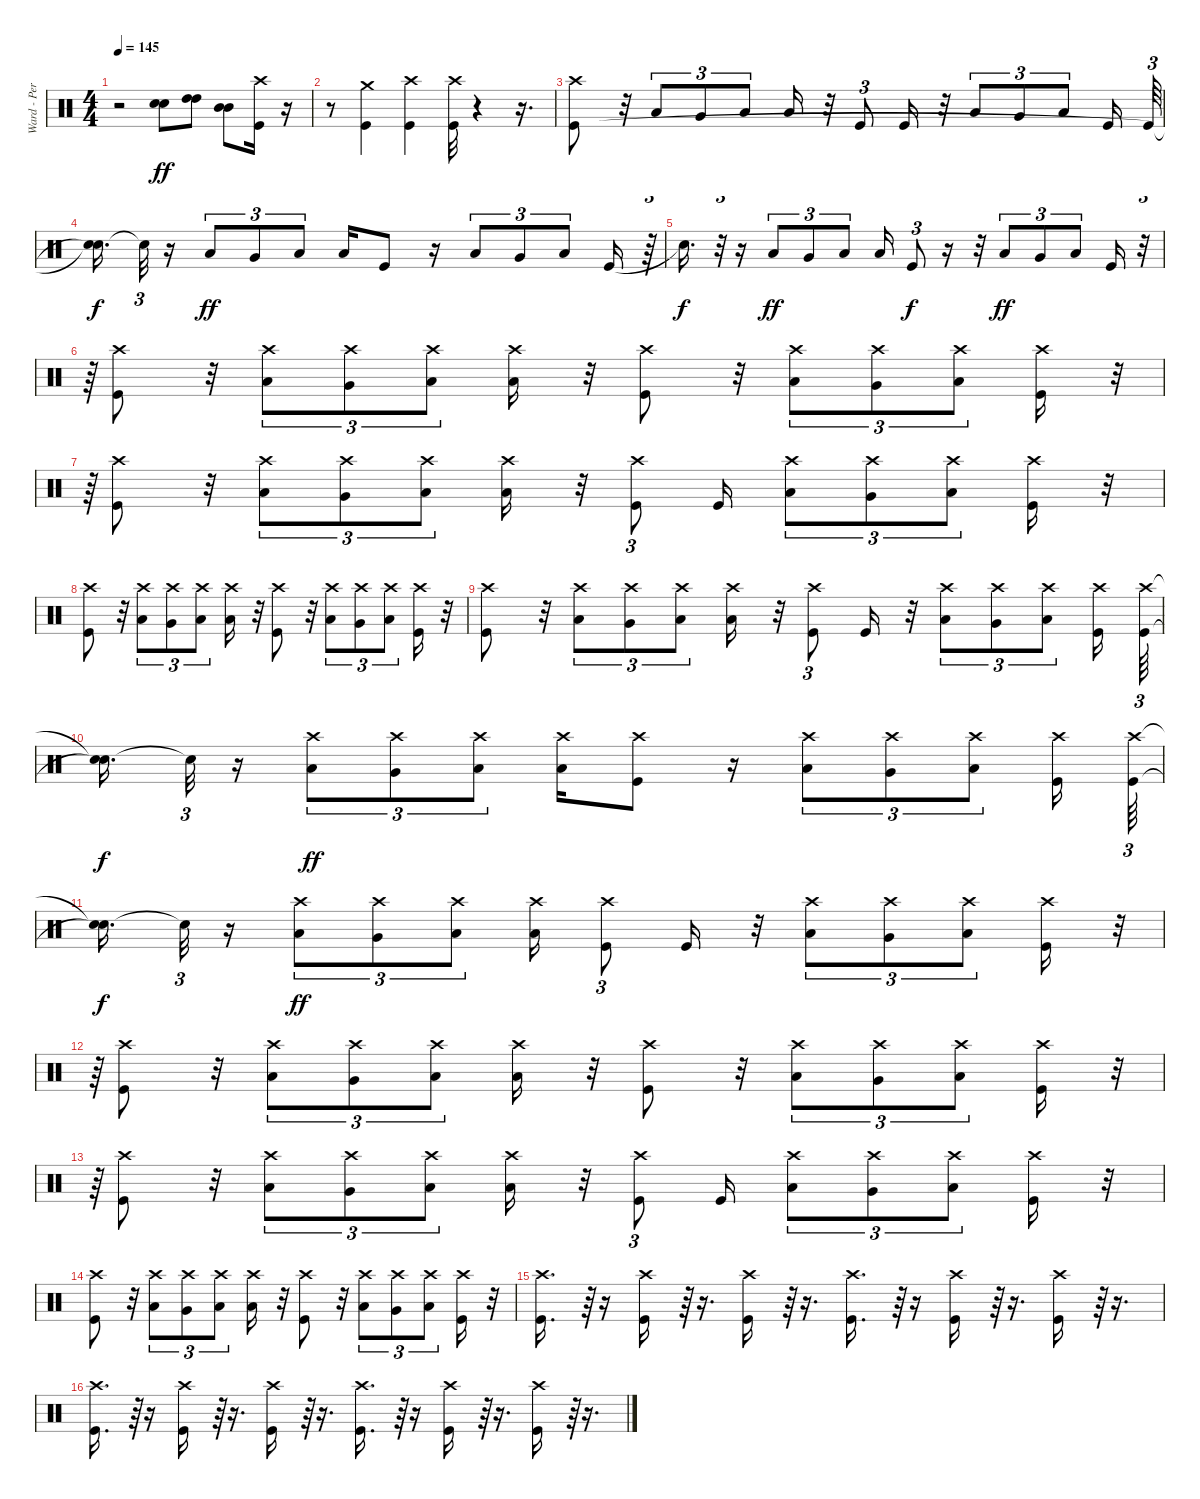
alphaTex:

\track ("Ward - Percussion" "Ward - Per") {instrument percussion}
\staff {score}
\articulation defaults
\ts (4 4)
\tempo 145
\clef neutral
\ks c
r.2{dy ff} ("Snare (hit) 2" "Snare (hit) 2").8 ("High Tom (hit)" "High Tom (hit)").8 ("Mid Tom (hit)" "Mid Tom (hit)").8 ("Kick (hit)" "Crash high (hit)").16 r.16 |
r.8 ("Kick (hit)" "Crash medium (hit)").4 ("Kick (hit)" "Crash high (hit)").4 ("Kick (hit)" "Crash high (hit)").32 r.4 r.16{d} |
("Crash high (hit)" "Kick (hit)").8 r.32 "Low Floor Tom (hit)".8{tu (3 2)} "Very Low Tom (hit)".8{tu (3 2)} "Low Floor Tom (hit)".8{tu (3 2)} "Low Floor Tom (hit)".16 r.32 "Kick (hit)".8{tu (3 2)} "Kick (hit)".16 r.32 "Low Floor Tom (hit)".8{tu (3 2)} "Very Low Tom (hit)".8{tu (3 2)} "Low Floor Tom (hit)".8{tu (3 2)} "Kick (hit)".16 "Kick (hit)".64{tu (3 2)} |
("Snare (hit)"{t} "Snare (hit)"{t}).16{d dy f} "Snare (hit)"{t}.32{tu (3 2)} r.16 "Low Floor Tom (hit)".8{tu (3 2) dy ff} "Very Low Tom (hit)".8{tu (3 2)} "Low Floor Tom (hit)".8{tu (3 2)} "Low Floor Tom (hit)".16 "Kick (hit)".8 r.16 "Low Floor Tom (hit)".8{tu (3 2)} "Very Low Tom (hit)".8{tu (3 2)} "Low Floor Tom (hit)".8{tu (3 2)} "Kick (hit)".16 r.64{tu (3 2)} |
"Snare (hit)"{t}.16{d dy f} r.32{tu (3 2)} r.16 "Low Floor Tom (hit)".8{tu (3 2) dy ff} "Very Low Tom (hit)".8{tu (3 2)} "Low Floor Tom (hit)".8{tu (3 2)} "Low Floor Tom (hit)".16 "Kick (hit)".8{tu (3 2) dy f} r.16 r.32 "Low Floor Tom (hit)".8{tu (3 2) dy ff} "Very Low Tom (hit)".8{tu (3 2)} "Low Floor Tom (hit)".8{tu (3 2)} "Kick (hit)".16 r.32{tu (3 2)} |
r.64{tu (3 2)} ("Crash high (hit)" "Kick (hit)").8 r.32 ("Low Floor Tom (hit)" "Crash high (hit)").8{tu (3 2)} ("Very Low Tom (hit)" "Crash high (hit)").8{tu (3 2)} ("Low Floor Tom (hit)" "Crash high (hit)").8{tu (3 2)} ("Low Floor Tom (hit)" "Crash high (hit)").16 r.32 ("Crash high (hit)" "Kick (hit)").8 r.32 ("Low Floor Tom (hit)" "Crash high (hit)").8{tu (3 2)} ("Very Low Tom (hit)" "Crash high (hit)").8{tu (3 2)} ("Low Floor Tom (hit)" "Crash high (hit)").8{tu (3 2)} ("Kick (hit)" "Crash high (hit)").16 r.32{tu (3 2)} |
r.64{tu (3 2)} ("Crash high (hit)" "Kick (hit)").8 r.32 ("Low Floor Tom (hit)" "Crash high (hit)").8{tu (3 2)} ("Very Low Tom (hit)" "Crash high (hit)").8{tu (3 2)} ("Low Floor Tom (hit)" "Crash high (hit)").8{tu (3 2)} ("Low Floor Tom (hit)" "Crash high (hit)").16 r.32 ("Crash high (hit)" "Kick (hit)").8{tu (3 2)} "Kick (hit)".16 ("Low Floor Tom (hit)" "Crash high (hit)").8{tu (3 2)} ("Very Low Tom (hit)" "Crash high (hit)").8{tu (3 2)} ("Low Floor Tom (hit)" "Crash high (hit)").8{tu (3 2)} ("Kick (hit)" "Crash high (hit)").16 r.32 |
("Crash high (hit)" "Kick (hit)").8 r.32 ("Low Floor Tom (hit)" "Crash high (hit)").8{tu (3 2)} ("Very Low Tom (hit)" "Crash high (hit)").8{tu (3 2)} ("Low Floor Tom (hit)" "Crash high (hit)").8{tu (3 2)} ("Low Floor Tom (hit)" "Crash high (hit)").16 r.32 ("Crash high (hit)" "Kick (hit)").8 r.32 ("Low Floor Tom (hit)" "Crash high (hit)").8{tu (3 2)} ("Very Low Tom (hit)" "Crash high (hit)").8{tu (3 2)} ("Low Floor Tom (hit)" "Crash high (hit)").8{tu (3 2)} ("Kick (hit)" "Crash high (hit)").16 r.32 |
("Crash high (hit)" "Kick (hit)").8 r.32 ("Low Floor Tom (hit)" "Crash high (hit)").8{tu (3 2)} ("Very Low Tom (hit)" "Crash high (hit)").8{tu (3 2)} ("Low Floor Tom (hit)" "Crash high (hit)").8{tu (3 2)} ("Low Floor Tom (hit)" "Crash high (hit)").16 r.32 ("Crash high (hit)" "Kick (hit)").8{tu (3 2)} "Kick (hit)".16 r.32 ("Low Floor Tom (hit)" "Crash high (hit)").8{tu (3 2)} ("Very Low Tom (hit)" "Crash high (hit)").8{tu (3 2)} ("Low Floor Tom (hit)" "Crash high (hit)").8{tu (3 2)} ("Kick (hit)" "Crash high (hit)").16 ("Crash high (hit)" "Kick (hit)").64{tu (3 2)} |
("Snare (hit)"{t} "Snare (hit)"{t}).16{d dy f} "Snare (hit)"{t}.32{tu (3 2)} r.16 ("Low Floor Tom (hit)" "Crash high (hit)").8{tu (3 2) dy ff} ("Very Low Tom (hit)" "Crash high (hit)").8{tu (3 2)} ("Low Floor Tom (hit)" "Crash high (hit)").8{tu (3 2)} ("Low Floor Tom (hit)" "Crash high (hit)").16 ("Crash high (hit)" "Kick (hit)").8 r.16 ("Low Floor Tom (hit)" "Crash high (hit)").8{tu (3 2)} ("Very Low Tom (hit)" "Crash high (hit)").8{tu (3 2)} ("Low Floor Tom (hit)" "Crash high (hit)").8{tu (3 2)} ("Kick (hit)" "Crash high (hit)").16 ("Crash high (hit)" "Kick (hit)").64{tu (3 2)} |
("Snare (hit)"{t} "Snare (hit)"{t}).16{d dy f} "Snare (hit)"{t}.32{tu (3 2)} r.16 ("Low Floor Tom (hit)" "Crash high (hit)").8{tu (3 2) dy ff} ("Very Low Tom (hit)" "Crash high (hit)").8{tu (3 2)} ("Low Floor Tom (hit)" "Crash high (hit)").8{tu (3 2)} ("Low Floor Tom (hit)" "Crash high (hit)").16 ("Crash high (hit)" "Kick (hit)").8{tu (3 2)} "Kick (hit)".16 r.32 ("Low Floor Tom (hit)" "Crash high (hit)").8{tu (3 2)} ("Very Low Tom (hit)" "Crash high (hit)").8{tu (3 2)} ("Low Floor Tom (hit)" "Crash high (hit)").8{tu (3 2)} ("Kick (hit)" "Crash high (hit)").16 r.32{tu (3 2)} |
r.64{tu (3 2)} ("Crash high (hit)" "Kick (hit)").8 r.32 ("Low Floor Tom (hit)" "Crash high (hit)").8{tu (3 2)} ("Very Low Tom (hit)" "Crash high (hit)").8{tu (3 2)} ("Low Floor Tom (hit)" "Crash high (hit)").8{tu (3 2)} ("Low Floor Tom (hit)" "Crash high (hit)").16 r.32 ("Crash high (hit)" "Kick (hit)").8 r.32 ("Low Floor Tom (hit)" "Crash high (hit)").8{tu (3 2)} ("Very Low Tom (hit)" "Crash high (hit)").8{tu (3 2)} ("Low Floor Tom (hit)" "Crash high (hit)").8{tu (3 2)} ("Kick (hit)" "Crash high (hit)").16 r.32{tu (3 2)} |
r.64{tu (3 2)} ("Crash high (hit)" "Kick (hit)").8 r.32 ("Low Floor Tom (hit)" "Crash high (hit)").8{tu (3 2)} ("Very Low Tom (hit)" "Crash high (hit)").8{tu (3 2)} ("Low Floor Tom (hit)" "Crash high (hit)").8{tu (3 2)} ("Low Floor Tom (hit)" "Crash high (hit)").16 r.32 ("Crash high (hit)" "Kick (hit)").8{tu (3 2)} "Kick (hit)".16 ("Low Floor Tom (hit)" "Crash high (hit)").8{tu (3 2)} ("Very Low Tom (hit)" "Crash high (hit)").8{tu (3 2)} ("Low Floor Tom (hit)" "Crash high (hit)").8{tu (3 2)} ("Kick (hit)" "Crash high (hit)").16 r.32 |
("Crash high (hit)" "Kick (hit)").8 r.32 ("Low Floor Tom (hit)" "Crash high (hit)").8{tu (3 2)} ("Very Low Tom (hit)" "Crash high (hit)").8{tu (3 2)} ("Low Floor Tom (hit)" "Crash high (hit)").8{tu (3 2)} ("Low Floor Tom (hit)" "Crash high (hit)").16 r.32 ("Crash high (hit)" "Kick (hit)").8 r.32 ("Low Floor Tom (hit)" "Crash high (hit)").8{tu (3 2)} ("Very Low Tom (hit)" "Crash high (hit)").8{tu (3 2)} ("Low Floor Tom (hit)" "Crash high (hit)").8{tu (3 2)} ("Kick (hit)" "Crash high (hit)").16 r.32 |
("Crash high (hit)" "Kick (hit)").16{d} r.64{tu (3 2)} r.16 ("Crash high (hit)" "Kick (hit)").16 r.64{tu (3 2)} r.16{d} ("Crash high (hit)" "Kick (hit)").16 r.64{tu (3 2)} r.16{d} ("Crash high (hit)" "Kick (hit)").16{d} r.64{tu (3 2)} r.16 ("Crash high (hit)" "Kick (hit)").16 r.64{tu (3 2)} r.16{d} ("Crash high (hit)" "Kick (hit)").16 r.64{tu (3 2)} r.16{d} |
("Crash high (hit)" "Kick (hit)").16{d} r.64{tu (3 2)} r.16 ("Crash high (hit)" "Kick (hit)").16 r.64{tu (3 2)} r.16{d} ("Crash high (hit)" "Kick (hit)").16 r.64{tu (3 2)} r.16{d} ("Crash high (hit)" "Kick (hit)").16{d} r.64{tu (3 2)} r.16 ("Crash high (hit)" "Kick (hit)").16 r.64{tu (3 2)} r.16{d} ("Crash high (hit)" "Kick (hit)").16 r.64{tu (3 2)} r.16{d}
